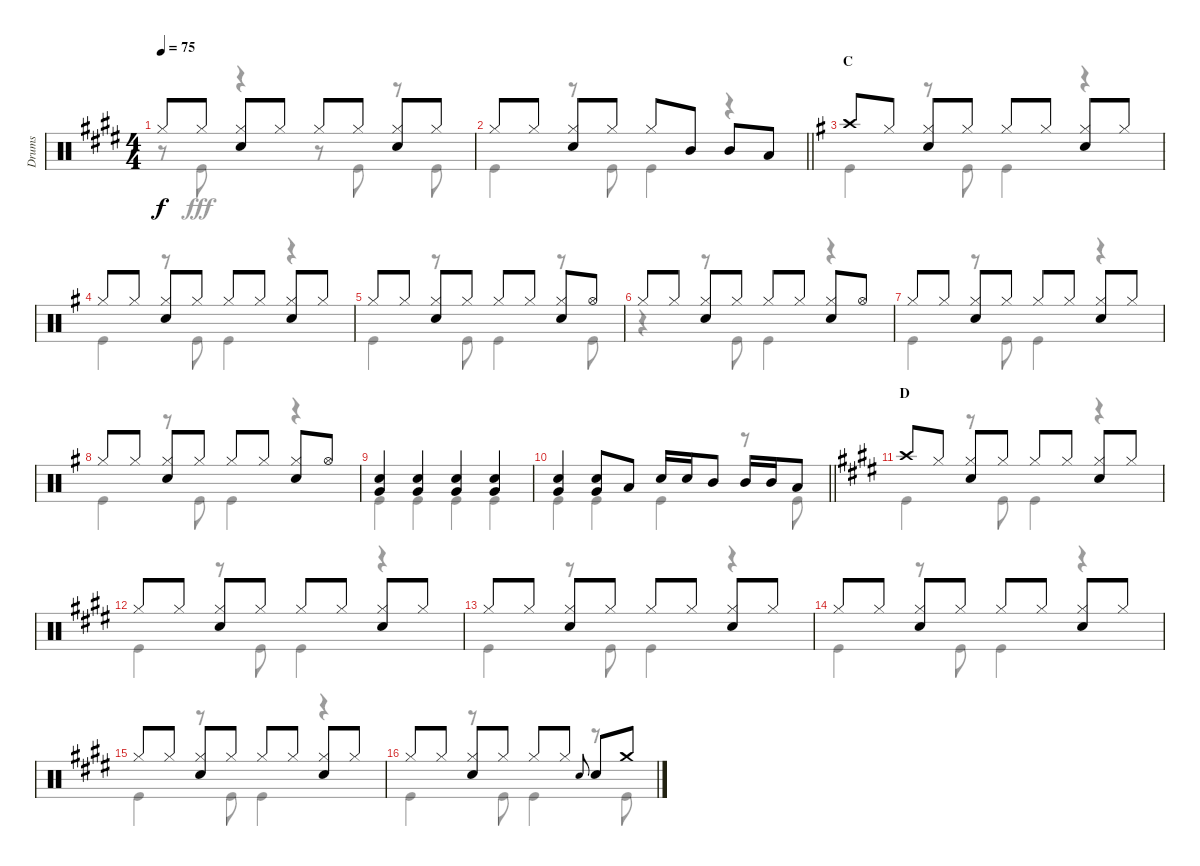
\track ("Drums" "Drums") {instrument percussion}
\staff {score}
\articulation defaults
\voice
\ts (4 4)
\tempo 75
\clef neutral
\ks e "Hi-Hat (closed)".8{dy f} "Hi-Hat (closed)".8
("Hi-Hat (closed)" "Snare (hit) 2").8 "Hi-Hat (closed)".8 "Hi-Hat (closed)".8 "Hi-Hat (closed)".8 ("Hi-Hat (closed)" "Snare (hit) 2").8 "Hi-Hat (closed)".8 |
\barLineRight lightlight "Hi-Hat (closed)".8 "Hi-Hat (closed)".8
("Hi-Hat (closed)" "Snare (hit) 2").8 "Hi-Hat (closed)".8 "Hi-Hat (closed)".8 "Mid Tom (hit)".8 "Mid Tom (hit)".8 "Low Tom (hit)".8 |
\section ("" "C")
\ks g "Crash high (hit)".8 "Hi-Hat (closed)".8
("Hi-Hat (closed)" "Snare (hit) 2").8 "Hi-Hat (closed)".8 "Hi-Hat (closed)".8 "Hi-Hat (closed)".8 ("Hi-Hat (closed)" "Snare (hit) 2").8 "Hi-Hat (closed)".8 |
"Hi-Hat (closed)".8 "Hi-Hat (closed)".8 ("Hi-Hat (closed)" "Snare (hit) 2").8 "Hi-Hat (closed)".8 "Hi-Hat (closed)".8 "Hi-Hat (closed)".8 ("Hi-Hat (closed)" "Snare (hit) 2").8 "Hi-Hat (closed)".8 |
"Hi-Hat (closed)".8 "Hi-Hat (closed)".8 ("Hi-Hat (closed)" "Snare (hit) 2").8 "Hi-Hat (closed)".8 "Hi-Hat (closed)".8 "Hi-Hat (closed)".8 ("Hi-Hat (closed)" "Snare (hit) 2").8 "Hi-Hat (open)".8 |
"Hi-Hat (closed)".8 "Hi-Hat (closed)".8 ("Hi-Hat (closed)" "Snare (hit) 2").8 "Hi-Hat (closed)".8 "Hi-Hat (closed)".8 "Hi-Hat (closed)".8 ("Hi-Hat (closed)" "Snare (hit) 2").8 "Hi-Hat (open)".8 |
"Hi-Hat (closed)".8 "Hi-Hat (closed)".8 ("Hi-Hat (closed)" "Snare (hit) 2").8 "Hi-Hat (closed)".8 "Hi-Hat (closed)".8 "Hi-Hat (closed)".8 ("Hi-Hat (closed)" "Snare (hit) 2").8 "Hi-Hat (closed)".8 |
"Hi-Hat (closed)".8 "Hi-Hat (closed)".8 ("Hi-Hat (closed)" "Snare (hit) 2").8 "Hi-Hat (closed)".8 "Hi-Hat (closed)".8 "Hi-Hat (closed)".8 ("Hi-Hat (closed)" "Snare (hit) 2").8 "Hi-Hat (open)".8 |
("Snare (hit) 2" "Very Low Tom (hit)").4 ("Snare (hit) 2" "Very Low Tom (hit)").4 ("Snare (hit) 2" "Very Low Tom (hit)").4 ("Snare (hit) 2" "Very Low Tom (hit)").4 |
\barLineRight lightlight
("Snare (hit) 2" "Very Low Tom (hit)").4 ("Snare (hit) 2" "Very Low Tom (hit)").8 "Low Tom (hit)".8 "Snare (hit) 2".16 "Snare (hit) 2".16 "Mid Tom (hit)".8 "Mid Tom (hit)".16 "Mid Tom (hit)".16 "Low Tom (hit)".8 |
\section ("" "D")
\ks e "Crash high (hit)".8 "Hi-Hat (closed)".8
("Hi-Hat (closed)" "Snare (hit) 2").8 "Hi-Hat (closed)".8 "Hi-Hat (closed)".8 "Hi-Hat (closed)".8 ("Hi-Hat (closed)" "Snare (hit) 2").8 "Hi-Hat (closed)".8 |
"Hi-Hat (closed)".8 "Hi-Hat (closed)".8 ("Hi-Hat (closed)" "Snare (hit) 2").8 "Hi-Hat (closed)".8 "Hi-Hat (closed)".8 "Hi-Hat (closed)".8 ("Hi-Hat (closed)" "Snare (hit) 2").8 "Hi-Hat (closed)".8 |
"Hi-Hat (closed)".8 "Hi-Hat (closed)".8 ("Hi-Hat (closed)" "Snare (hit) 2").8 "Hi-Hat (closed)".8 "Hi-Hat (closed)".8 "Hi-Hat (closed)".8 ("Hi-Hat (closed)" "Snare (hit) 2").8 "Hi-Hat (closed)".8 |
"Hi-Hat (closed)".8 "Hi-Hat (closed)".8 ("Hi-Hat (closed)" "Snare (hit) 2").8 "Hi-Hat (closed)".8 "Hi-Hat (closed)".8 "Hi-Hat (closed)".8 ("Hi-Hat (closed)" "Snare (hit) 2").8 "Hi-Hat (closed)".8 |
"Hi-Hat (closed)".8 "Hi-Hat (closed)".8 ("Hi-Hat (closed)" "Snare (hit) 2").8 "Hi-Hat (closed)".8 "Hi-Hat (closed)".8 "Hi-Hat (closed)".8 ("Hi-Hat (closed)" "Snare (hit) 2").8 "Hi-Hat (closed)".8 |
"Hi-Hat (closed)".8 "Hi-Hat (closed)".8 ("Hi-Hat (closed)" "Snare (hit) 2").8 "Hi-Hat (closed)".8 "Hi-Hat (closed)".8 "Hi-Hat (closed)".8 "Snare (hit) 2".8{gr onbeat} "Snare (hit) 2".8 "Crash medium (hit)".8
\voice
\clef neutral
\ottava regular
\simile none
\ks e
r.8{dy fff} "Kick (hit)".8 r.4 r.8 "Kick (hit)".8 r.8 "Kick (hit)".8 |
\barLineRight lightlight "Kick (hit)".4
r.8 "Kick (hit)".8 "Kick (hit)".4 r.4 |
\ks g "Kick (hit)".4
r.8 "Kick (hit)".8 "Kick (hit)".4 r.4 |
"Kick (hit)".4 r.8 "Kick (hit)".8 "Kick (hit)".4 r.4 |
"Kick (hit)".4 r.8 "Kick (hit)".8 "Kick (hit)".4 r.8 "Kick (hit)".8 |
r.4 r.8 "Kick (hit)".8 "Kick (hit)".4 r.4 |
"Kick (hit)".4 r.8 "Kick (hit)".8 "Kick (hit)".4 r.4 |
"Kick (hit)".4 r.8 "Kick (hit)".8 "Kick (hit)".4 r.4 |
"Kick (hit)".4 "Kick (hit)".4 "Kick (hit)".4 "Kick (hit)".4 |
\barLineRight lightlight "Kick (hit)".4 "Kick (hit)".4 "Kick (hit)".4
r.8 "Kick (hit)".8 |
\ks e "Kick (hit)".4
r.8 "Kick (hit)".8 "Kick (hit)".4 r.4 |
"Kick (hit)".4 r.8 "Kick (hit)".8 "Kick (hit)".4 r.4 |
"Kick (hit)".4 r.8 "Kick (hit)".8 "Kick (hit)".4 r.4 |
"Kick (hit)".4 r.8 "Kick (hit)".8 "Kick (hit)".4 r.4 |
"Kick (hit)".4 r.8 "Kick (hit)".8 "Kick (hit)".4 r.4 |
"Kick (hit)".4 r.8 "Kick (hit)".8 "Kick (hit)".4 r.8 "Kick (hit)".8
